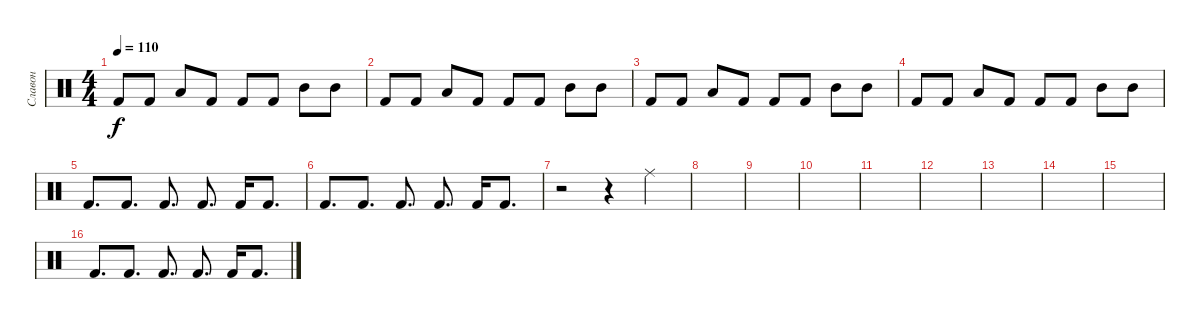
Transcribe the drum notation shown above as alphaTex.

\track ("Славон" "Славон") {instrument percussion}
\staff {score}
\articulation defaults
\ts (4 4)
\tempo 110
\clef neutral
\ks c "Kick (hit) 2".8{dy f} "Kick (hit) 2".8 "Low Tom (hit)".8 "Kick (hit) 2".8 "Kick (hit) 2".8 "Kick (hit) 2".8 "Mid Tom (hit)".8 "Mid Tom (hit)".8
|
"Kick (hit) 2".8 "Kick (hit) 2".8 "Low Tom (hit)".8 "Kick (hit) 2".8 "Kick (hit) 2".8 "Kick (hit) 2".8 "Mid Tom (hit)".8 "Mid Tom (hit)".8 |
"Kick (hit) 2".8 "Kick (hit) 2".8 "Low Tom (hit)".8 "Kick (hit) 2".8 "Kick (hit) 2".8 "Kick (hit) 2".8 "Mid Tom (hit)".8 "Mid Tom (hit)".8 |
"Kick (hit) 2".8 "Kick (hit) 2".8 "Low Tom (hit)".8 "Kick (hit) 2".8 "Kick (hit) 2".8 "Kick (hit) 2".8 "Mid Tom (hit)".8 "Mid Tom (hit)".8 |
"Kick (hit) 2".8{d} "Kick (hit) 2".8{d} "Kick (hit) 2".8{d} "Kick (hit) 2".8{d} "Kick (hit) 2".16 "Kick (hit) 2".8{d} |
"Kick (hit) 2".8{d} "Kick (hit) 2".8{d} "Kick (hit) 2".8{d} "Kick (hit) 2".8{d} "Kick (hit) 2".16 "Kick (hit) 2".8{d} |
r.2 r.4 "Ride (middle)".4 |
|
|
|
|
|
|
|
|
"Kick (hit) 2".8{d} "Kick (hit) 2".8{d} "Kick (hit) 2".8{d} "Kick (hit) 2".8{d} "Kick (hit) 2".16 "Kick (hit) 2".8{d}
